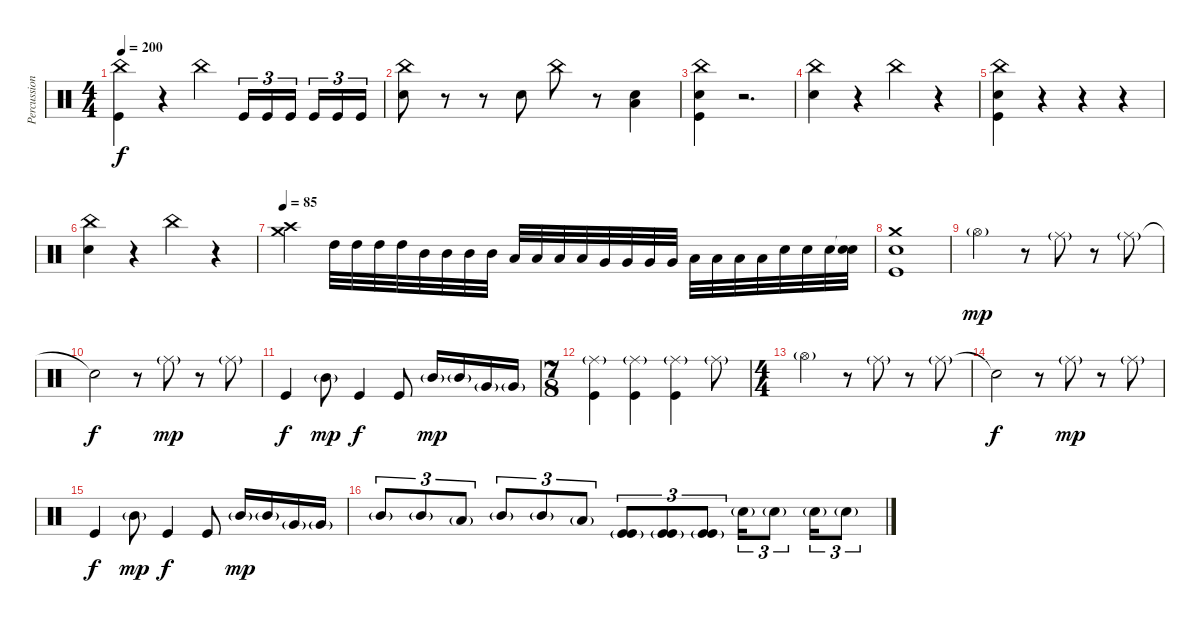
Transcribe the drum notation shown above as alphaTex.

\track ("Percussion" "Percussion") {instrument percussion}
\staff {score}
\articulation defaults
\ts (4 4)
\tempo 200
\clef neutral
\ks c
("China (hit)" "Kick (hit)").4{dy f} r.4 "China (hit)".4 "Kick (hit)".16{tu (3 2)} "Kick (hit)".16{tu (3 2)} "Kick (hit)".16{tu (3 2) beam splitsecondary} "Kick (hit)".16{tu (3 2)} "Kick (hit)".16{tu (3 2)} "Kick (hit)".16{tu (3 2)} |
("China (hit)" "Snare (hit) 2").8 r.8 r.8 "Snare (hit) 2".8 "China (hit)".8 r.8 ("Low Floor Tom (hit)" "Snare (hit) 2").4 |
("China (hit)" "Snare (hit) 2" "Kick (hit)").4 r.2{d} |
("China (hit)" "Snare (hit) 2").4 r.4 "China (hit)".4 r.4 |
("China (hit)" "Snare (hit) 2" "Kick (hit)").4 r.4 r.4 r.4 |
("China (hit)" "Snare (hit) 2").4 r.4 "China (hit)".4 r.4 |
\tempo 85
("Crash medium (hit)" "Crash high (hit)").4 "High Tom (hit)".32 "High Tom (hit)".32 "High Tom (hit)".32 "High Tom (hit)".32 "Mid Tom (hit)".32 "Mid Tom (hit)".32 "Mid Tom (hit)".32 "Mid Tom (hit)".32 "Low Tom (hit)".32 "Low Tom (hit)".32 "Low Tom (hit)".32 "Low Tom (hit)".32 "Very Low Tom (hit)".32 "Very Low Tom (hit)".32 "Very Low Tom (hit)".32 "Very Low Tom (hit)".32 "Low Floor Tom (hit)".32 "Low Floor Tom (hit)".32 "Low Floor Tom (hit)".32 "Low Floor Tom (hit)".32 "Snare (hit) 2".32 "Snare (hit) 2".32 "Snare (hit) 2".32 ("Snare (hit)"{t} "Snare (hit) 2").32 |
("Crash medium (hit)" "Snare (hit) 2" "Kick (hit)").1 |
"Hi-Hat (open)"{g}.2{dy mp} r.8 "Ride (middle)"{g}.8 r.8 "Ride (middle)"{g}.8 |
"Snare (hit)"{t}.2{dy f} r.8 "Ride (middle)"{g}.8{dy mp} r.8 "Ride (middle)"{g}.8 |
"Kick (hit)".4{dy f} "Mid Tom (hit)"{g}.8{dy mp} "Kick (hit)".4{dy f} "Kick (hit)".8 "Mid Tom (hit)"{g}.16{dy mp} "Mid Tom (hit)"{g}.16 "Very Low Tom (hit)"{g}.16 "Very Low Tom (hit)"{g}.16 |
\ts (7 8)
("Ride (middle)"{g} "Kick (hit)").4 ("Ride (middle)"{g} "Kick (hit)").4 ("Ride (middle)"{g} "Kick (hit)").4 "Ride (middle)"{g}.8 |
\ts (4 4)
"Hi-Hat (open)"{g}.2 r.8 "Ride (middle)"{g}.8 r.8 "Ride (middle)"{g}.8 |
"Snare (hit)"{t}.2{dy f} r.8 "Ride (middle)"{g}.8{dy mp} r.8 "Ride (middle)"{g}.8 |
"Kick (hit)".4{dy f} "Mid Tom (hit)"{g}.8{dy mp} "Kick (hit)".4{dy f} "Kick (hit)".8 "Mid Tom (hit)"{g}.16{dy mp} "Mid Tom (hit)"{g}.16 "Very Low Tom (hit)"{g}.16 "Very Low Tom (hit)"{g}.16 |
"Mid Tom (hit)"{g}.8{tu (3 2)} "Mid Tom (hit)"{g}.8{tu (3 2)} "Low Floor Tom (hit)"{g}.8{tu (3 2)} "Mid Tom (hit)"{g}.8{tu (3 2)} "Mid Tom (hit)"{g}.8{tu (3 2)} "Low Tom (hit)"{g}.8{tu (3 2)} ("Kick (hit)"{g} "Kick (hit)"{g}).8{tu (3 2)} ("Kick (hit)"{g} "Kick (hit)"{g}).8{tu (3 2)} ("Kick (hit)"{g} "Kick (hit)"{g}).8{tu (3 2)} "Snare (hit) 2"{g}.16{tu (3 2)} "Snare (hit) 2"{g}.8{tu (3 2)} "Snare (hit) 2"{g}.16{tu (3 2)} "Snare (hit) 2"{g}.8{tu (3 2)}
